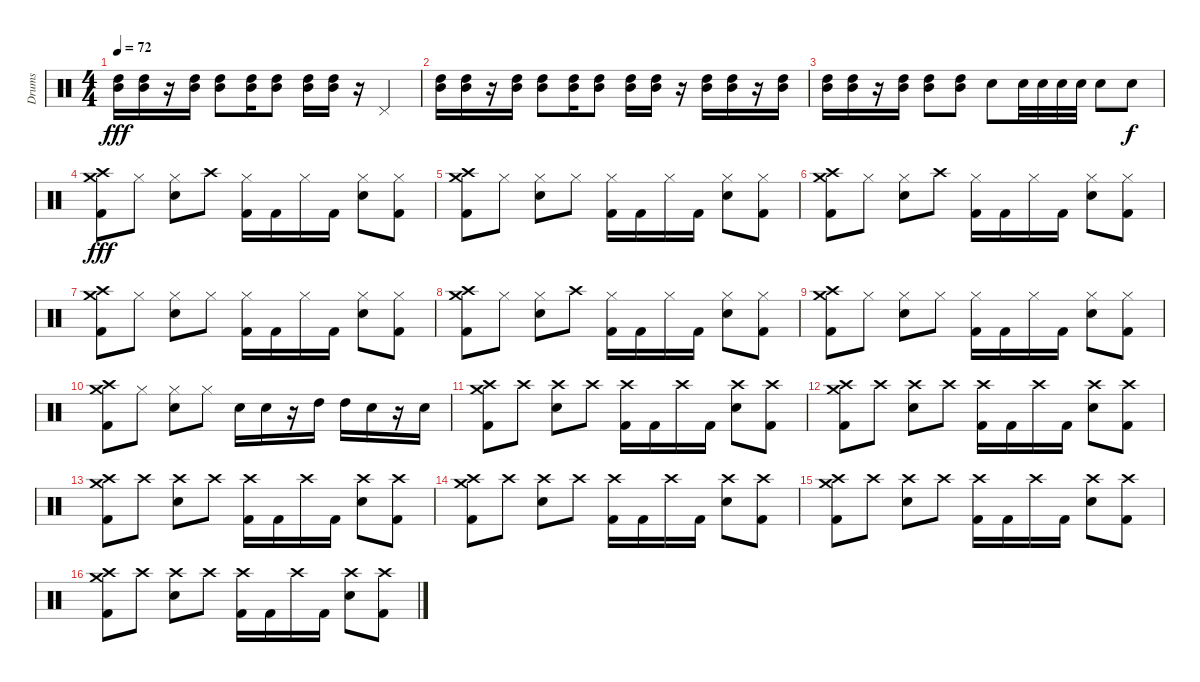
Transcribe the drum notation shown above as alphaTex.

\track ("Drums" "Drums") {instrument percussion}
\staff {score}
\articulation defaults
\ts (4 4)
\tempo 72
\clef neutral
\ks c
("Mid Tom (hit)" "High Tom (hit)").16{dy fff} ("Mid Tom (hit)" "High Tom (hit)").16 r.16 ("Mid Tom (hit)" "High Tom (hit)").16 ("Mid Tom (hit)" "High Tom (hit)").8 ("Mid Tom (hit)" "High Tom (hit)").16 ("Mid Tom (hit)" "High Tom (hit)").8 ("Mid Tom (hit)" "High Tom (hit)").16 ("Mid Tom (hit)" "High Tom (hit)").16 r.16 "Pedal Hi-Hat (hit)".4 |
("Mid Tom (hit)" "High Tom (hit)").16 ("Mid Tom (hit)" "High Tom (hit)").16 r.16 ("Mid Tom (hit)" "High Tom (hit)").16 ("Mid Tom (hit)" "High Tom (hit)").8 ("Mid Tom (hit)" "High Tom (hit)").16 ("Mid Tom (hit)" "High Tom (hit)").8 ("Mid Tom (hit)" "High Tom (hit)").16 ("Mid Tom (hit)" "High Tom (hit)").16 r.16 ("Mid Tom (hit)" "High Tom (hit)").16 ("Mid Tom (hit)" "High Tom (hit)").16 r.16 ("Mid Tom (hit)" "High Tom (hit)").16 |
("Mid Tom (hit)" "High Tom (hit)").16 ("Mid Tom (hit)" "High Tom (hit)").16 r.16 ("Mid Tom (hit)" "High Tom (hit)").16 ("Mid Tom (hit)" "High Tom (hit)").8 ("Mid Tom (hit)" "High Tom (hit)").8 "Electric Snare (hit)".8 "Electric Snare (hit)".32 "Electric Snare (hit)".32 "Electric Snare (hit)".32 "Electric Snare (hit)".32 "Electric Snare (hit)".8 "Electric Snare (hit)".8{dy f} |
("Crash high (hit)" "Crash medium (hit)" "Kick (hit) 2").8{dy fff} "Hi-Hat (closed)".8 ("Hi-Hat (closed)" "Electric Snare (hit)").8 "Crash high (hit)".8 ("Hi-Hat (closed)" "Kick (hit) 2").16 "Kick (hit) 2".16 "Hi-Hat (closed)".16 "Kick (hit) 2".16 ("Hi-Hat (closed)" "Electric Snare (hit)").8 ("Hi-Hat (closed)" "Kick (hit) 2").8 |
("Crash high (hit)" "Crash medium (hit)" "Kick (hit) 2").8 "Hi-Hat (closed)".8 ("Hi-Hat (closed)" "Electric Snare (hit)").8 "Hi-Hat (closed)".8 ("Hi-Hat (closed)" "Kick (hit) 2").16 "Kick (hit) 2".16 "Hi-Hat (closed)".16 "Kick (hit) 2".16 ("Hi-Hat (closed)" "Electric Snare (hit)").8 ("Hi-Hat (closed)" "Kick (hit) 2").8 |
("Crash high (hit)" "Crash medium (hit)" "Kick (hit) 2").8 "Hi-Hat (closed)".8 ("Hi-Hat (closed)" "Electric Snare (hit)").8 "Crash high (hit)".8 ("Hi-Hat (closed)" "Kick (hit) 2").16 "Kick (hit) 2".16 "Hi-Hat (closed)".16 "Kick (hit) 2".16 ("Hi-Hat (closed)" "Electric Snare (hit)").8 ("Hi-Hat (closed)" "Kick (hit) 2").8 |
("Crash high (hit)" "Crash medium (hit)" "Kick (hit) 2").8 "Hi-Hat (closed)".8 ("Hi-Hat (closed)" "Electric Snare (hit)").8 "Hi-Hat (closed)".8 ("Hi-Hat (closed)" "Kick (hit) 2").16 "Kick (hit) 2".16 "Hi-Hat (closed)".16 "Kick (hit) 2".16 ("Hi-Hat (closed)" "Electric Snare (hit)").8 ("Hi-Hat (closed)" "Kick (hit) 2").8 |
("Crash high (hit)" "Crash medium (hit)" "Kick (hit) 2").8 "Hi-Hat (closed)".8 ("Hi-Hat (closed)" "Electric Snare (hit)").8 "Crash high (hit)".8 ("Hi-Hat (closed)" "Kick (hit) 2").16 "Kick (hit) 2".16 "Hi-Hat (closed)".16 "Kick (hit) 2".16 ("Hi-Hat (closed)" "Electric Snare (hit)").8 ("Hi-Hat (closed)" "Kick (hit) 2").8 |
("Crash high (hit)" "Crash medium (hit)" "Kick (hit) 2").8 "Hi-Hat (closed)".8 ("Hi-Hat (closed)" "Electric Snare (hit)").8 "Hi-Hat (closed)".8 ("Hi-Hat (closed)" "Kick (hit) 2").16 "Kick (hit) 2".16 "Hi-Hat (closed)".16 "Kick (hit) 2".16 ("Hi-Hat (closed)" "Electric Snare (hit)").8 ("Hi-Hat (closed)" "Kick (hit) 2").8 |
("Crash high (hit)" "Crash medium (hit)" "Kick (hit) 2").8 "Hi-Hat (closed)".8 ("Hi-Hat (closed)" "Electric Snare (hit)").8 "Hi-Hat (closed)".8 "Electric Snare (hit)".16 "Electric Snare (hit)".16 r.16 "High Tom (hit)".16 "High Tom (hit)".16 "Electric Snare (hit)".16 r.16 "Electric Snare (hit)".16 |
("Crash high (hit)" "Crash medium (hit)" "Kick (hit) 2").8 "Crash high (hit)".8 ("Crash high (hit)" "Electric Snare (hit)").8 "Crash high (hit)".8 ("Crash high (hit)" "Kick (hit) 2").16 "Kick (hit) 2".16 "Crash high (hit)".16 "Kick (hit) 2".16 ("Crash high (hit)" "Electric Snare (hit)").8 ("Crash high (hit)" "Kick (hit) 2").8 |
("Crash high (hit)" "Crash medium (hit)" "Kick (hit) 2").8 "Crash high (hit)".8 ("Crash high (hit)" "Electric Snare (hit)").8 "Crash high (hit)".8 ("Crash high (hit)" "Kick (hit) 2").16 "Kick (hit) 2".16 "Crash high (hit)".16 "Kick (hit) 2".16 ("Crash high (hit)" "Electric Snare (hit)").8 ("Crash high (hit)" "Kick (hit) 2").8 |
("Crash high (hit)" "Crash medium (hit)" "Kick (hit) 2").8 "Crash high (hit)".8 ("Crash high (hit)" "Electric Snare (hit)").8 "Crash high (hit)".8 ("Crash high (hit)" "Kick (hit) 2").16 "Kick (hit) 2".16 "Crash high (hit)".16 "Kick (hit) 2".16 ("Crash high (hit)" "Electric Snare (hit)").8 ("Crash high (hit)" "Kick (hit) 2").8 |
("Crash high (hit)" "Crash medium (hit)" "Kick (hit) 2").8 "Crash high (hit)".8 ("Crash high (hit)" "Electric Snare (hit)").8 "Crash high (hit)".8 ("Crash high (hit)" "Kick (hit) 2").16 "Kick (hit) 2".16 "Crash high (hit)".16 "Kick (hit) 2".16 ("Crash high (hit)" "Electric Snare (hit)").8 ("Crash high (hit)" "Kick (hit) 2").8 |
("Crash high (hit)" "Crash medium (hit)" "Kick (hit) 2").8 "Crash high (hit)".8 ("Crash high (hit)" "Electric Snare (hit)").8 "Crash high (hit)".8 ("Crash high (hit)" "Kick (hit) 2").16 "Kick (hit) 2".16 "Crash high (hit)".16 "Kick (hit) 2".16 ("Crash high (hit)" "Electric Snare (hit)").8 ("Crash high (hit)" "Kick (hit) 2").8 |
("Crash high (hit)" "Crash medium (hit)" "Kick (hit) 2").8 "Crash high (hit)".8 ("Crash high (hit)" "Electric Snare (hit)").8 "Crash high (hit)".8 ("Crash high (hit)" "Kick (hit) 2").16 "Kick (hit) 2".16 "Crash high (hit)".16 "Kick (hit) 2".16 ("Crash high (hit)" "Electric Snare (hit)").8 ("Crash high (hit)" "Kick (hit) 2").8
